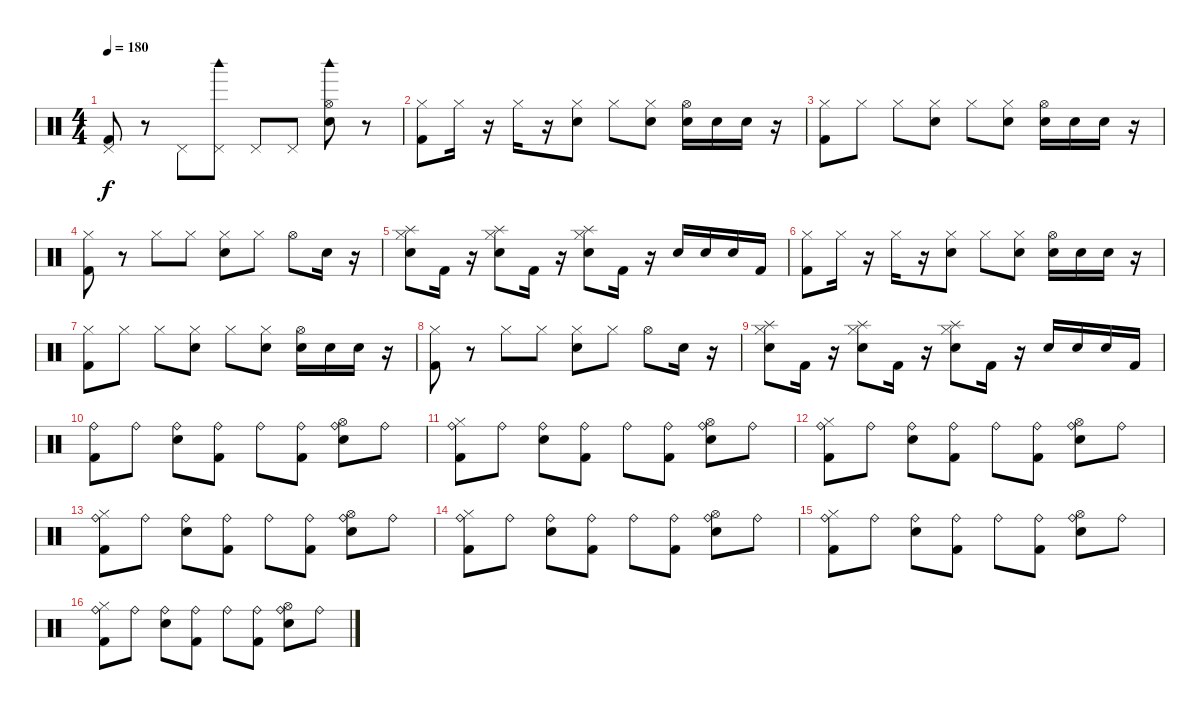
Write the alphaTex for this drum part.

\track "" {instrument percussion}
\staff {score}
\articulation defaults
\ts (4 4)
\tempo 180
\clef neutral
\ks c
("Pedal Hi-Hat (hit)" "Kick (hit) 2").8{dy f} r.8 "Pedal Hi-Hat (hit)".8 ("Pedal Hi-Hat (hit)" "Woodblock high (hit)").8 "Pedal Hi-Hat (hit)".8 "Pedal Hi-Hat (hit)".8 ("Hi-Hat (open)" "Electric Snare (hit)" "Woodblock high (hit)").8 r.8 |
("Hi-Hat (closed)" "Kick (hit) 2").8 "Hi-Hat (closed)".16 r.16 "Hi-Hat (closed)".16 r.16 ("Hi-Hat (closed)" "Electric Snare (hit)").8 "Hi-Hat (closed)".8 ("Hi-Hat (closed)" "Electric Snare (hit)").8 ("Hi-Hat (open)" "Electric Snare (hit)").16 "Electric Snare (hit)".16 "Electric Snare (hit)".16 r.16 |
("Hi-Hat (closed)" "Kick (hit) 2").8 "Hi-Hat (closed)".8 "Hi-Hat (closed)".8 ("Hi-Hat (closed)" "Electric Snare (hit)").8 "Hi-Hat (closed)".8 ("Hi-Hat (closed)" "Electric Snare (hit)").8 ("Hi-Hat (open)" "Electric Snare (hit)").16 "Electric Snare (hit)".16 "Electric Snare (hit)".16 r.16 |
("Hi-Hat (closed)" "Kick (hit) 2").8 r.8 "Hi-Hat (closed)".8 "Hi-Hat (closed)".8 ("Hi-Hat (closed)" "Electric Snare (hit)").8 "Hi-Hat (closed)".8 "Hi-Hat (open)".8 "Electric Snare (hit)".16 r.16 |
("Hi-Hat (closed)" "Splash (hit)" "Electric Snare (hit)").8 "Kick (hit) 2".16 r.16 ("Hi-Hat (closed)" "Splash (hit)" "Electric Snare (hit)").8 "Kick (hit) 2".16 r.16 ("Hi-Hat (closed)" "Splash (hit)" "Electric Snare (hit)").8 "Kick (hit) 2".16 r.16 "Electric Snare (hit)".16 "Electric Snare (hit)".16 "Electric Snare (hit)".16 "Kick (hit) 2".16 |
("Hi-Hat (closed)" "Kick (hit) 2").8 "Hi-Hat (closed)".16 r.16 "Hi-Hat (closed)".16 r.16 ("Hi-Hat (closed)" "Electric Snare (hit)").8 "Hi-Hat (closed)".8 ("Hi-Hat (closed)" "Electric Snare (hit)").8 ("Hi-Hat (open)" "Electric Snare (hit)").16 "Electric Snare (hit)".16 "Electric Snare (hit)".16 r.16 |
("Hi-Hat (closed)" "Kick (hit) 2").8 "Hi-Hat (closed)".8 "Hi-Hat (closed)".8 ("Hi-Hat (closed)" "Electric Snare (hit)").8 "Hi-Hat (closed)".8 ("Hi-Hat (closed)" "Electric Snare (hit)").8 ("Hi-Hat (open)" "Electric Snare (hit)").16 "Electric Snare (hit)".16 "Electric Snare (hit)".16 r.16 |
("Hi-Hat (closed)" "Kick (hit) 2").8 r.8 "Hi-Hat (closed)".8 "Hi-Hat (closed)".8 ("Hi-Hat (closed)" "Electric Snare (hit)").8 "Hi-Hat (closed)".8 "Hi-Hat (open)".8 "Electric Snare (hit)".16 r.16 |
("Hi-Hat (closed)" "Splash (hit)" "Electric Snare (hit)").8 "Kick (hit) 2".16 r.16 ("Hi-Hat (closed)" "Splash (hit)" "Electric Snare (hit)").8 "Kick (hit) 2".16 r.16 ("Hi-Hat (closed)" "Splash (hit)" "Electric Snare (hit)").8 "Kick (hit) 2".16 r.16 "Electric Snare (hit)".16 "Electric Snare (hit)".16 "Electric Snare (hit)".16 "Kick (hit) 2".16 |
("Ride (bell)" "Kick (hit) 2").8 "Ride (bell)".8 ("Ride (bell)" "Electric Snare (hit)").8 ("Ride (bell)" "Kick (hit) 2").8 "Ride (bell)".8 ("Ride (bell)" "Kick (hit) 2").8 ("Ride (bell)" "Hi-Hat (open)" "Electric Snare (hit)").8 "Ride (bell)".8 |
("Ride (bell)" "Hi-Hat (closed)" "Kick (hit) 2").8 "Ride (bell)".8 ("Ride (bell)" "Electric Snare (hit)").8 ("Ride (bell)" "Kick (hit) 2").8 "Ride (bell)".8 ("Ride (bell)" "Kick (hit) 2").8 ("Ride (bell)" "Hi-Hat (open)" "Electric Snare (hit)").8 "Ride (bell)".8 |
("Ride (bell)" "Hi-Hat (closed)" "Kick (hit) 2").8 "Ride (bell)".8 ("Ride (bell)" "Electric Snare (hit)").8 ("Ride (bell)" "Kick (hit) 2").8 "Ride (bell)".8 ("Ride (bell)" "Kick (hit) 2").8 ("Ride (bell)" "Hi-Hat (open)" "Electric Snare (hit)").8 "Ride (bell)".8 |
("Ride (bell)" "Hi-Hat (closed)" "Kick (hit) 2").8 "Ride (bell)".8 ("Ride (bell)" "Electric Snare (hit)").8 ("Ride (bell)" "Kick (hit) 2").8 "Ride (bell)".8 ("Ride (bell)" "Kick (hit) 2").8 ("Ride (bell)" "Hi-Hat (open)" "Electric Snare (hit)").8 "Ride (bell)".8 |
("Hi-Hat (closed)" "Ride (bell)" "Kick (hit) 2").8 "Ride (bell)".8 ("Ride (bell)" "Electric Snare (hit)").8 ("Ride (bell)" "Kick (hit) 2").8 "Ride (bell)".8 ("Ride (bell)" "Kick (hit) 2").8 ("Ride (bell)" "Hi-Hat (open)" "Electric Snare (hit)").8 "Ride (bell)".8 |
("Ride (bell)" "Hi-Hat (closed)" "Kick (hit) 2").8 "Ride (bell)".8 ("Ride (bell)" "Electric Snare (hit)").8 ("Ride (bell)" "Kick (hit) 2").8 "Ride (bell)".8 ("Ride (bell)" "Kick (hit) 2").8 ("Ride (bell)" "Hi-Hat (open)" "Electric Snare (hit)").8 "Ride (bell)".8 |
("Ride (bell)" "Hi-Hat (closed)" "Kick (hit) 2").8 "Ride (bell)".8 ("Ride (bell)" "Electric Snare (hit)").8 ("Ride (bell)" "Kick (hit) 2").8 "Ride (bell)".8 ("Ride (bell)" "Kick (hit) 2").8 ("Ride (bell)" "Hi-Hat (open)" "Electric Snare (hit)").8 "Ride (bell)".8
